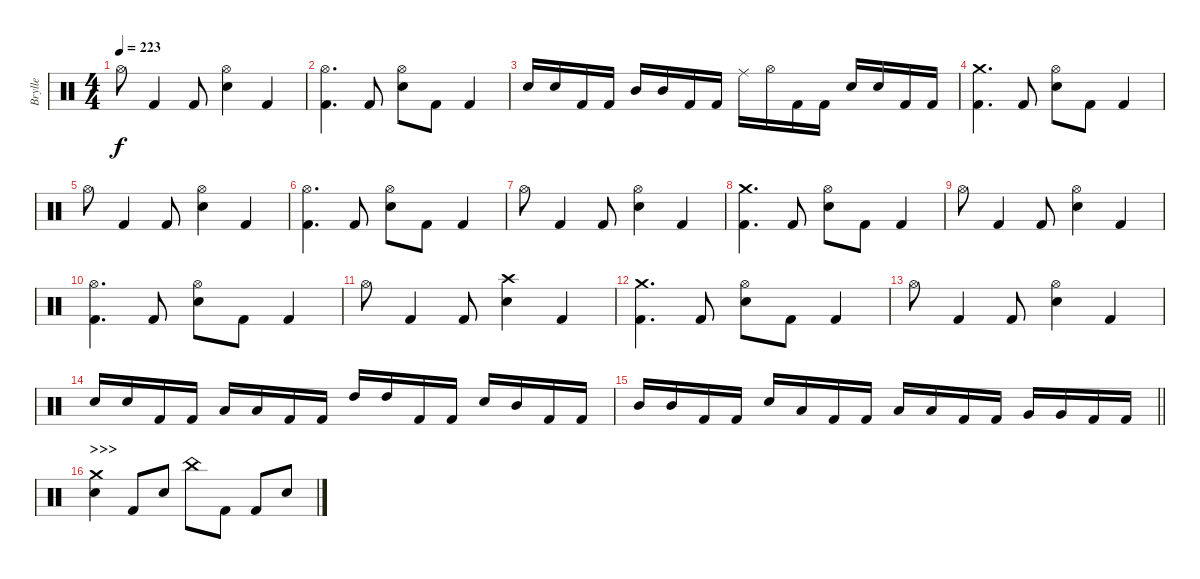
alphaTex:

\track ("Brylle" "Brylle") {instrument percussion}
\staff {score}
\articulation defaults
\ts (4 4)
\tempo 223
\clef neutral
\ks c "Hi-Hat (open)".8{dy f} "Kick (hit) 2".4 "Kick (hit) 2".8
("Hi-Hat (open)" "Electric Snare (hit)").4 "Kick (hit) 2".4 |
("Hi-Hat (open)" "Kick (hit) 2").4{d} "Kick (hit) 2".8 ("Hi-Hat (open)" "Electric Snare (hit)").8 "Kick (hit) 2".8 "Kick (hit) 2".4 |
"Electric Snare (hit)".16 "Electric Snare (hit)".16 "Kick (hit) 2".16 "Kick (hit) 2".16 "Mid Tom (hit)".16 "Mid Tom (hit)".16 "Kick (hit) 2".16 "Kick (hit) 2".16 "Ride (middle)".16 "Hi-Hat (open)".16 "Kick (hit) 2".16 "Kick (hit) 2".16 "Electric Snare (hit)".16 "Electric Snare (hit)".16 "Kick (hit) 2".16 "Kick (hit) 2".16 |
("Crash medium (hit)" "Kick (hit) 2").4{d} "Kick (hit) 2".8 ("Hi-Hat (open)" "Electric Snare (hit)").8 "Kick (hit) 2".8 "Kick (hit) 2".4 |
"Hi-Hat (open)".8 "Kick (hit) 2".4 "Kick (hit) 2".8 ("Hi-Hat (open)" "Electric Snare (hit)").4 "Kick (hit) 2".4 |
("Hi-Hat (open)" "Kick (hit) 2").4{d} "Kick (hit) 2".8 ("Hi-Hat (open)" "Electric Snare (hit)").8 "Kick (hit) 2".8 "Kick (hit) 2".4 |
"Hi-Hat (open)".8 "Kick (hit) 2".4 "Kick (hit) 2".8 ("Hi-Hat (open)" "Electric Snare (hit)").4 "Kick (hit) 2".4 |
("Crash medium (hit)" "Kick (hit) 2").4{d} "Kick (hit) 2".8 ("Hi-Hat (open)" "Electric Snare (hit)").8 "Kick (hit) 2".8 "Kick (hit) 2".4 |
"Hi-Hat (open)".8 "Kick (hit) 2".4 "Kick (hit) 2".8 ("Hi-Hat (open)" "Electric Snare (hit)").4 "Kick (hit) 2".4 |
("Hi-Hat (open)" "Kick (hit) 2").4{d} "Kick (hit) 2".8 ("Hi-Hat (open)" "Electric Snare (hit)").8 "Kick (hit) 2".8 "Kick (hit) 2".4 |
"Hi-Hat (open)".8 "Kick (hit) 2".4 "Kick (hit) 2".8 ("Crash high (hit)" "Electric Snare (hit)").4 "Kick (hit) 2".4 |
("Crash medium (hit)" "Kick (hit) 2").4{d} "Kick (hit) 2".8 ("Hi-Hat (open)" "Electric Snare (hit)").8 "Kick (hit) 2".8 "Kick (hit) 2".4 |
"Hi-Hat (open)".8 "Kick (hit) 2".4 "Kick (hit) 2".8 ("Hi-Hat (open)" "Electric Snare (hit)").4 "Kick (hit) 2".4 |
"Electric Snare (hit)".16 "Electric Snare (hit)".16 "Kick (hit) 2".16 "Kick (hit) 2".16 "Low Tom (hit)".16 "Low Tom (hit)".16 "Kick (hit) 2".16 "Kick (hit) 2".16 "High Tom (hit)".16 "High Tom (hit)".16 "Kick (hit) 2".16 "Kick (hit) 2".16 "Electric Snare (hit)".16 "Mid Tom (hit)".16 "Kick (hit) 2".16 "Kick (hit) 2".16 |
\barLineRight lightlight "Mid Tom (hit)".16 "Mid Tom (hit)".16 "Kick (hit) 2".16 "Kick (hit) 2".16 "Electric Snare (hit)".16 "Low Tom (hit)".16 "Kick (hit) 2".16 "Kick (hit) 2".16 "Low Tom (hit)".16 "Low Tom (hit)".16 "Kick (hit) 2".16 "Kick (hit) 2".16 "Very Low Tom (hit)".16 "Very Low Tom (hit)".16 "Kick (hit) 2".16 "Kick (hit) 2".16
|
\section ("" ">>>")
("Crash medium (hit)" "Electric Snare (hit)").4 "Kick (hit) 2".8 "Electric Snare (hit)".8 "China (hit)".8 "Kick (hit) 2".8 "Kick (hit) 2".8 "Electric Snare (hit)".8
